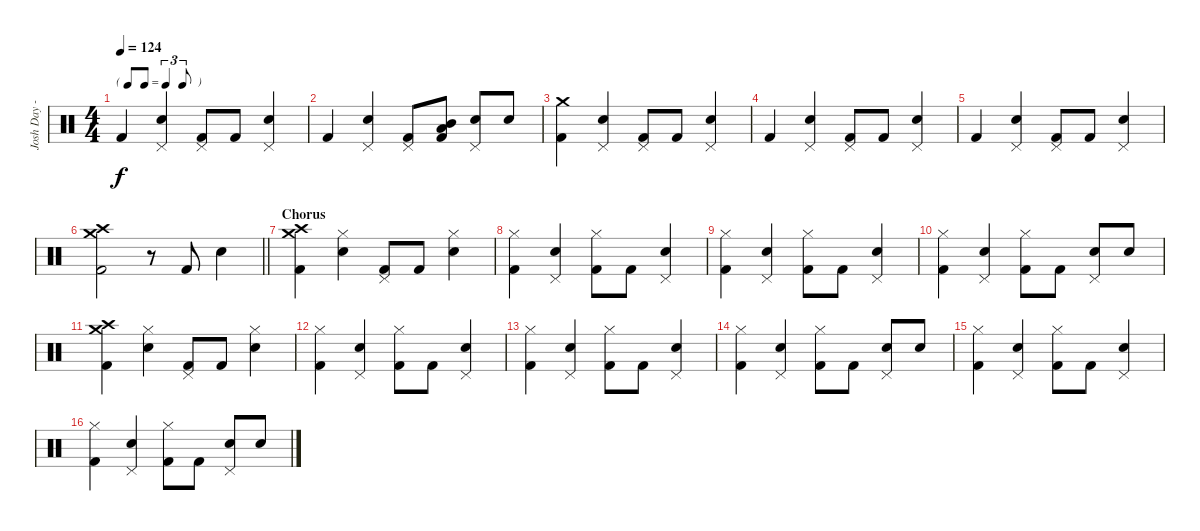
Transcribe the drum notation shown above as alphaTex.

\track ("Josh Day - Drums/Percussion" "Josh Day -") {instrument percussion}
\staff {score}
\articulation defaults
\ts (4 4)
\tf triplet8th
\tempo 124
\clef neutral
\ks c "Kick (hit) 2".4{dy f}
("Snare (hit) 2" "Pedal Hi-Hat (hit)").4 ("Pedal Hi-Hat (hit)" "Kick (hit) 2").8 "Kick (hit) 2".8 ("Snare (hit) 2" "Pedal Hi-Hat (hit)").4 |
"Kick (hit) 2".4 ("Snare (hit) 2" "Pedal Hi-Hat (hit)").4 ("Pedal Hi-Hat (hit)" "Kick (hit) 2").8 ("Mid Tom (hit)" "Low Tom (hit)" "Kick (hit) 2").8 ("Snare (hit) 2" "Pedal Hi-Hat (hit)").8 "Snare (hit) 2".8 |
("Crash medium (hit)" "Kick (hit) 2").4 ("Snare (hit) 2" "Pedal Hi-Hat (hit)").4 ("Pedal Hi-Hat (hit)" "Kick (hit) 2").8 "Kick (hit) 2".8 ("Snare (hit) 2" "Pedal Hi-Hat (hit)").4 |
"Kick (hit) 2".4 ("Snare (hit) 2" "Pedal Hi-Hat (hit)").4 ("Pedal Hi-Hat (hit)" "Kick (hit) 2").8 "Kick (hit) 2".8 ("Snare (hit) 2" "Pedal Hi-Hat (hit)").4 |
"Kick (hit) 2".4 ("Snare (hit) 2" "Pedal Hi-Hat (hit)").4 ("Pedal Hi-Hat (hit)" "Kick (hit) 2").8 "Kick (hit) 2".8 ("Snare (hit) 2" "Pedal Hi-Hat (hit)").4 |
\barLineRight lightlight
("Crash medium (hit)" "Crash high (hit)" "Kick (hit) 2").2 r.8 "Kick (hit) 2".8 "Snare (hit) 2".4 |
\section ("" "Chorus")
("Crash medium (hit)" "Crash high (hit)" "Kick (hit) 2").4 ("Snare (hit) 2" "Hi-Hat (closed)").4 ("Pedal Hi-Hat (hit)" "Kick (hit) 2").8 "Kick (hit) 2".8 ("Snare (hit) 2" "Hi-Hat (closed)").4 |
("Hi-Hat (closed)" "Kick (hit) 2").4 ("Snare (hit) 2" "Pedal Hi-Hat (hit)").4 ("Hi-Hat (closed)" "Kick (hit) 2").8 "Kick (hit) 2".8 ("Snare (hit) 2" "Pedal Hi-Hat (hit)").4 |
("Hi-Hat (closed)" "Kick (hit) 2").4 ("Snare (hit) 2" "Pedal Hi-Hat (hit)").4 ("Hi-Hat (closed)" "Kick (hit) 2").8 "Kick (hit) 2".8 ("Snare (hit) 2" "Pedal Hi-Hat (hit)").4 |
("Hi-Hat (closed)" "Kick (hit) 2").4 ("Snare (hit) 2" "Pedal Hi-Hat (hit)").4 ("Hi-Hat (closed)" "Kick (hit) 2").8 "Kick (hit) 2".8 ("Snare (hit) 2" "Pedal Hi-Hat (hit)").8 "Snare (hit) 2".8 |
("Crash medium (hit)" "Crash high (hit)" "Kick (hit) 2").4 ("Snare (hit) 2" "Hi-Hat (closed)").4 ("Pedal Hi-Hat (hit)" "Kick (hit) 2").8 "Kick (hit) 2".8 ("Snare (hit) 2" "Hi-Hat (closed)").4 |
("Hi-Hat (closed)" "Kick (hit) 2").4 ("Snare (hit) 2" "Pedal Hi-Hat (hit)").4 ("Hi-Hat (closed)" "Kick (hit) 2").8 "Kick (hit) 2".8 ("Snare (hit) 2" "Pedal Hi-Hat (hit)").4 |
("Hi-Hat (closed)" "Kick (hit) 2").4 ("Snare (hit) 2" "Pedal Hi-Hat (hit)").4 ("Hi-Hat (closed)" "Kick (hit) 2").8 "Kick (hit) 2".8 ("Snare (hit) 2" "Pedal Hi-Hat (hit)").4 |
("Hi-Hat (closed)" "Kick (hit) 2").4 ("Snare (hit) 2" "Pedal Hi-Hat (hit)").4 ("Hi-Hat (closed)" "Kick (hit) 2").8 "Kick (hit) 2".8 ("Snare (hit) 2" "Pedal Hi-Hat (hit)").8 "Snare (hit) 2".8 |
("Hi-Hat (closed)" "Kick (hit) 2").4 ("Snare (hit) 2" "Pedal Hi-Hat (hit)").4 ("Hi-Hat (closed)" "Kick (hit) 2").8 "Kick (hit) 2".8 ("Snare (hit) 2" "Pedal Hi-Hat (hit)").4 |
("Hi-Hat (closed)" "Kick (hit) 2").4 ("Snare (hit) 2" "Pedal Hi-Hat (hit)").4 ("Hi-Hat (closed)" "Kick (hit) 2").8 "Kick (hit) 2".8 ("Snare (hit) 2" "Pedal Hi-Hat (hit)").8 "Snare (hit) 2".8
